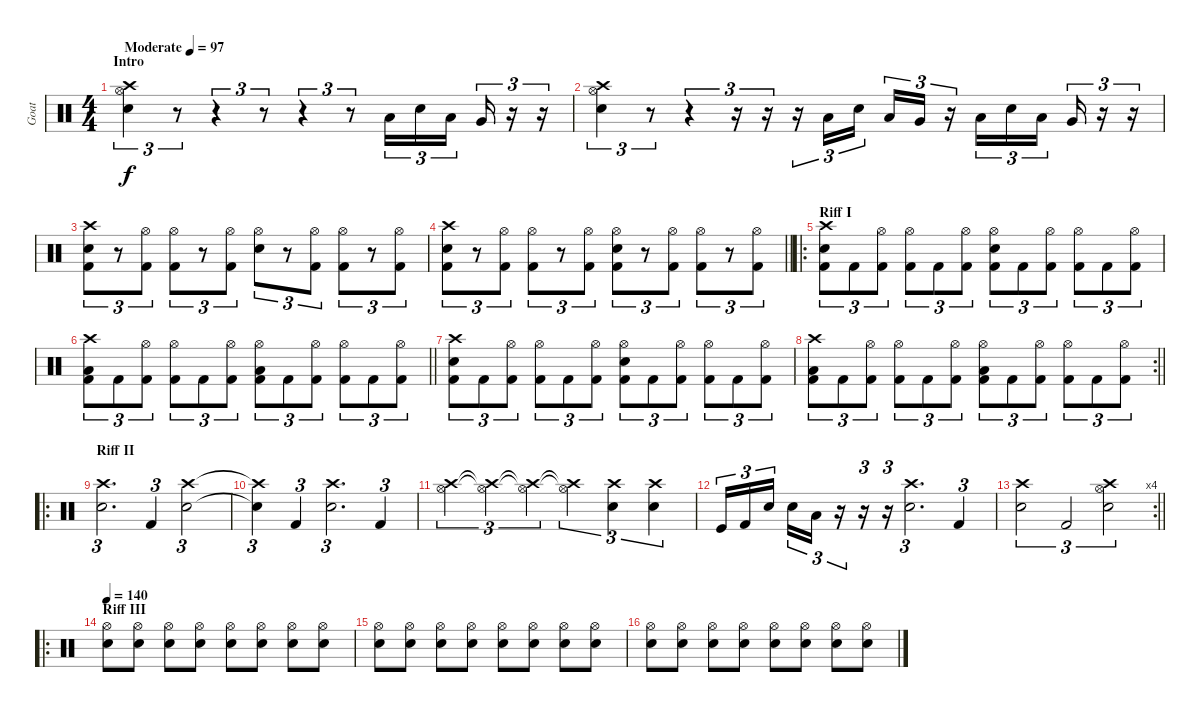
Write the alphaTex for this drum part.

\track ("Goat" "Goat") {instrument percussion}
\staff {score}
\articulation defaults
\ts (4 4)
\section ("" "Intro")
\tempo (97 "Moderate")
\clef neutral
\ks c
("Snare (hit) 2" "Hi-Hat (open)" "Crash high (hit)").4{tu (3 2) dy f} r.8{tu (3 2)} r.4{tu (3 2)} r.8{tu (3 2)} r.4{tu (3 2)} r.8{tu (3 2)} "Low Tom (hit)".16{tu (3 2)} "Electric Snare (hit)".16{tu (3 2)} "Low Floor Tom (hit)".16{tu (3 2) beam splitsecondary} "Very Low Tom (hit)".16{tu (3 2)} r.16{tu (3 2)} r.16{tu (3 2)} |
("Snare (hit) 2" "Hi-Hat (open)" "Crash high (hit)").4{tu (3 2)} r.8{tu (3 2)} r.4{tu (3 2)} r.16{tu (3 2)} r.16{tu (3 2)} r.16{tu (3 2)} "Low Tom (hit)".16{tu (3 2)} "Electric Snare (hit)".16{tu (3 2) beam splitsecondary} "Low Floor Tom (hit)".16{tu (3 2)} "Very Low Tom (hit)".16{tu (3 2)} r.16{tu (3 2)} "Low Tom (hit)".16{tu (3 2)} "Electric Snare (hit)".16{tu (3 2)} "Low Floor Tom (hit)".16{tu (3 2) beam splitsecondary} "Very Low Tom (hit)".16{tu (3 2)} r.16{tu (3 2)} r.16{tu (3 2)} |
("Kick (hit) 2" "Electric Snare (hit)" "Crash high (hit)").8{tu (3 2)} r.8{tu (3 2)} ("Kick (hit) 2" "Hi-Hat (open)").8{tu (3 2)} ("Kick (hit) 2" "Hi-Hat (open)").8{tu (3 2)} r.8{tu (3 2)} ("Kick (hit) 2" "Hi-Hat (open)").8{tu (3 2)} ("Electric Snare (hit)" "Hi-Hat (open)").8{tu (3 2)} r.8{tu (3 2)} ("Kick (hit) 2" "Hi-Hat (open)").8{tu (3 2)} ("Kick (hit) 2" "Hi-Hat (open)").8{tu (3 2)} r.8{tu (3 2)} ("Kick (hit) 2" "Hi-Hat (open)").8{tu (3 2)} |
\barLineRight lightlight
("Kick (hit) 2" "Electric Snare (hit)" "Crash high (hit)").8{tu (3 2)} r.8{tu (3 2)} ("Kick (hit) 2" "Hi-Hat (open)").8{tu (3 2)} ("Kick (hit) 2" "Hi-Hat (open)").8{tu (3 2)} r.8{tu (3 2)} ("Kick (hit) 2" "Hi-Hat (open)").8{tu (3 2)} ("Kick (hit) 2" "Electric Snare (hit)" "Hi-Hat (open)").8{tu (3 2)} r.8{tu (3 2)} ("Kick (hit) 2" "Hi-Hat (open)").8{tu (3 2)} ("Kick (hit) 2" "Hi-Hat (open)").8{tu (3 2)} r.8{tu (3 2)} ("Kick (hit) 2" "Hi-Hat (open)").8{tu (3 2)} |
\ro
\section ("" "Riff I")
("Kick (hit) 2" "Electric Snare (hit)" "Crash high (hit)").8{tu (3 2)} "Kick (hit) 2".8{tu (3 2)} ("Kick (hit) 2" "Hi-Hat (open)").8{tu (3 2)} ("Kick (hit) 2" "Hi-Hat (open)").8{tu (3 2)} "Kick (hit) 2".8{tu (3 2)} ("Kick (hit) 2" "Hi-Hat (open)").8{tu (3 2)} ("Kick (hit) 2" "Electric Snare (hit)" "Hi-Hat (open)").8{tu (3 2)} "Kick (hit) 2".8{tu (3 2)} ("Kick (hit) 2" "Hi-Hat (open)").8{tu (3 2)} ("Kick (hit) 2" "Hi-Hat (open)").8{tu (3 2)} "Kick (hit) 2".8{tu (3 2)} ("Kick (hit) 2" "Hi-Hat (open)").8{tu (3 2)} |
\barLineRight lightlight
("Kick (hit) 2" "Low Floor Tom (hit)" "Crash high (hit)").8{tu (3 2)} "Kick (hit) 2".8{tu (3 2)} ("Kick (hit) 2" "Hi-Hat (open)").8{tu (3 2)} ("Kick (hit) 2" "Hi-Hat (open)").8{tu (3 2)} "Kick (hit) 2".8{tu (3 2)} ("Kick (hit) 2" "Hi-Hat (open)").8{tu (3 2)} ("Kick (hit) 2" "Low Floor Tom (hit)" "Hi-Hat (open)").8{tu (3 2)} "Kick (hit) 2".8{tu (3 2)} ("Kick (hit) 2" "Hi-Hat (open)").8{tu (3 2)} ("Kick (hit) 2" "Hi-Hat (open)").8{tu (3 2)} "Kick (hit) 2".8{tu (3 2)} ("Kick (hit) 2" "Hi-Hat (open)").8{tu (3 2)} |
("Kick (hit) 2" "Electric Snare (hit)" "Crash high (hit)").8{tu (3 2)} "Kick (hit) 2".8{tu (3 2)} ("Kick (hit) 2" "Hi-Hat (open)").8{tu (3 2)} ("Kick (hit) 2" "Hi-Hat (open)").8{tu (3 2)} "Kick (hit) 2".8{tu (3 2)} ("Kick (hit) 2" "Hi-Hat (open)").8{tu (3 2)} ("Kick (hit) 2" "Electric Snare (hit)" "Hi-Hat (open)").8{tu (3 2)} "Kick (hit) 2".8{tu (3 2)} ("Kick (hit) 2" "Hi-Hat (open)").8{tu (3 2)} ("Kick (hit) 2" "Hi-Hat (open)").8{tu (3 2)} "Kick (hit) 2".8{tu (3 2)} ("Kick (hit) 2" "Hi-Hat (open)").8{tu (3 2)} |
\rc 2
\barLineRight lightlight
("Kick (hit) 2" "Low Floor Tom (hit)" "Crash high (hit)").8{tu (3 2)} "Kick (hit) 2".8{tu (3 2)} ("Kick (hit) 2" "Hi-Hat (open)").8{tu (3 2)} ("Kick (hit) 2" "Hi-Hat (open)").8{tu (3 2)} "Kick (hit) 2".8{tu (3 2)} ("Kick (hit) 2" "Hi-Hat (open)").8{tu (3 2)} ("Kick (hit) 2" "Low Floor Tom (hit)" "Hi-Hat (open)").8{tu (3 2)} "Kick (hit) 2".8{tu (3 2)} ("Kick (hit) 2" "Hi-Hat (open)").8{tu (3 2)} ("Kick (hit) 2" "Hi-Hat (open)").8{tu (3 2)} "Kick (hit) 2".8{tu (3 2)} ("Kick (hit) 2" "Hi-Hat (open)").8{tu (3 2)} |
\ro
\section ("" "Riff II")
("Snare (hit) 2" "Crash high (hit)").2{d tu (3 2)} "Kick (hit) 2".4{tu (3 2)} ("Snare (hit) 2" "Crash high (hit)").2{tu (3 2)} |
("Snare (hit) 2"{t} "Crash high (hit)"{t}).4{tu (3 2)} "Kick (hit) 2".4{tu (3 2)} ("Snare (hit) 2" "Crash high (hit)").2{d tu (3 2)} "Kick (hit) 2".4{tu (3 2)} |
("Hi-Hat (open)" "Crash high (hit)").4{tu (3 2)} ("Hi-Hat (open)"{t} "Crash high (hit)"{t}).4{tu (3 2)} ("Hi-Hat (open)"{t} "Crash high (hit)"{t}).4{tu (3 2)} ("Hi-Hat (open)"{t} "Crash high (hit)"{t}).4{tu (3 2)} ("Snare (hit) 2" "Crash high (hit)").4{tu (3 2)} ("Snare (hit) 2" "Crash high (hit)").4{tu (3 2)} |
"Kick (hit)".16{tu (3 2)} "Kick (hit) 2".16{tu (3 2)} "Snare (hit) 2".16{tu (3 2) beam splitsecondary} "Electric Snare (hit)".16{tu (3 2)} "Low Floor Tom (hit)".16{tu (3 2)} r.16{tu (3 2)} r.16{tu (3 2)} r.16{tu (3 2)} ("Snare (hit) 2" "Crash high (hit)").2{d tu (3 2)} "Kick (hit) 2".4{tu (3 2)} |
\rc 4
\barLineRight lightlight
("Snare (hit) 2" "Crash high (hit)").2{tu (3 2)} "Kick (hit) 2".2{tu (3 2)} ("Hi-Hat (open)" "Snare (hit) 2" "Crash high (hit)").2{tu (3 2)} |
\ro
\section ("" "Riff III")
\tempo 140
("Hi-Hat (open)" "Snare (hit) 2").8 ("Hi-Hat (open)" "Snare (hit) 2").8 ("Hi-Hat (open)" "Snare (hit) 2").8 ("Hi-Hat (open)" "Snare (hit) 2").8 ("Hi-Hat (open)" "Snare (hit) 2").8 ("Hi-Hat (open)" "Snare (hit) 2").8 ("Hi-Hat (open)" "Snare (hit) 2").8 ("Hi-Hat (open)" "Snare (hit) 2").8 |
("Hi-Hat (open)" "Snare (hit) 2").8 ("Hi-Hat (open)" "Snare (hit) 2").8 ("Hi-Hat (open)" "Snare (hit) 2").8 ("Hi-Hat (open)" "Snare (hit) 2").8 ("Hi-Hat (open)" "Snare (hit) 2").8 ("Hi-Hat (open)" "Snare (hit) 2").8 ("Hi-Hat (open)" "Snare (hit) 2").8 ("Hi-Hat (open)" "Snare (hit) 2").8 |
("Hi-Hat (open)" "Snare (hit) 2").8 ("Hi-Hat (open)" "Snare (hit) 2").8 ("Hi-Hat (open)" "Snare (hit) 2").8 ("Hi-Hat (open)" "Snare (hit) 2").8 ("Hi-Hat (open)" "Snare (hit) 2").8 ("Hi-Hat (open)" "Snare (hit) 2").8 ("Hi-Hat (open)" "Snare (hit) 2").8 ("Hi-Hat (open)" "Snare (hit) 2").8
